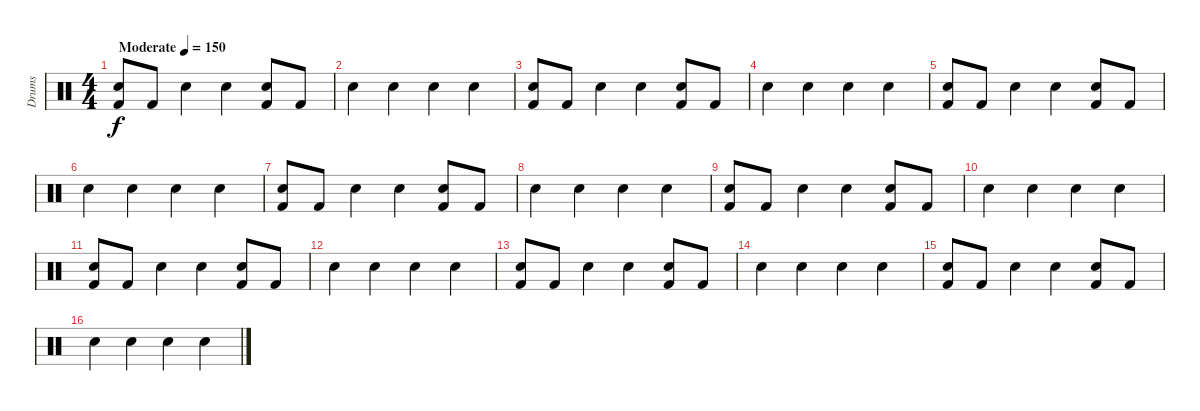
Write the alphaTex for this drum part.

\track ("Drums" "Drums") {instrument percussion}
\staff {score}
\articulation defaults
\ts (4 4)
\tempo (150 "Moderate")
\clef neutral
\ks c
("Snare (hit) 2" "Kick (hit) 2").8{dy f} "Kick (hit) 2".8 "Snare (hit) 2".4 "Snare (hit) 2".4 ("Snare (hit) 2" "Kick (hit) 2").8 "Kick (hit) 2".8 |
"Snare (hit) 2".4 "Snare (hit) 2".4 "Snare (hit) 2".4 "Snare (hit) 2".4 |
("Snare (hit) 2" "Kick (hit) 2").8 "Kick (hit) 2".8 "Snare (hit) 2".4 "Snare (hit) 2".4 ("Snare (hit) 2" "Kick (hit) 2").8 "Kick (hit) 2".8 |
"Snare (hit) 2".4 "Snare (hit) 2".4 "Snare (hit) 2".4 "Snare (hit) 2".4 |
("Snare (hit) 2" "Kick (hit) 2").8 "Kick (hit) 2".8 "Snare (hit) 2".4 "Snare (hit) 2".4 ("Snare (hit) 2" "Kick (hit) 2").8 "Kick (hit) 2".8 |
"Snare (hit) 2".4 "Snare (hit) 2".4 "Snare (hit) 2".4 "Snare (hit) 2".4 |
("Snare (hit) 2" "Kick (hit) 2").8 "Kick (hit) 2".8 "Snare (hit) 2".4 "Snare (hit) 2".4 ("Snare (hit) 2" "Kick (hit) 2").8 "Kick (hit) 2".8 |
"Snare (hit) 2".4 "Snare (hit) 2".4 "Snare (hit) 2".4 "Snare (hit) 2".4 |
("Snare (hit) 2" "Kick (hit) 2").8 "Kick (hit) 2".8 "Snare (hit) 2".4 "Snare (hit) 2".4 ("Snare (hit) 2" "Kick (hit) 2").8 "Kick (hit) 2".8 |
"Snare (hit) 2".4 "Snare (hit) 2".4 "Snare (hit) 2".4 "Snare (hit) 2".4 |
("Snare (hit) 2" "Kick (hit) 2").8 "Kick (hit) 2".8 "Snare (hit) 2".4 "Snare (hit) 2".4 ("Snare (hit) 2" "Kick (hit) 2").8 "Kick (hit) 2".8 |
"Snare (hit) 2".4 "Snare (hit) 2".4 "Snare (hit) 2".4 "Snare (hit) 2".4 |
("Snare (hit) 2" "Kick (hit) 2").8 "Kick (hit) 2".8 "Snare (hit) 2".4 "Snare (hit) 2".4 ("Snare (hit) 2" "Kick (hit) 2").8 "Kick (hit) 2".8 |
"Snare (hit) 2".4 "Snare (hit) 2".4 "Snare (hit) 2".4 "Snare (hit) 2".4 |
("Snare (hit) 2" "Kick (hit) 2").8 "Kick (hit) 2".8 "Snare (hit) 2".4 "Snare (hit) 2".4 ("Snare (hit) 2" "Kick (hit) 2").8 "Kick (hit) 2".8 |
"Snare (hit) 2".4 "Snare (hit) 2".4 "Snare (hit) 2".4 "Snare (hit) 2".4
